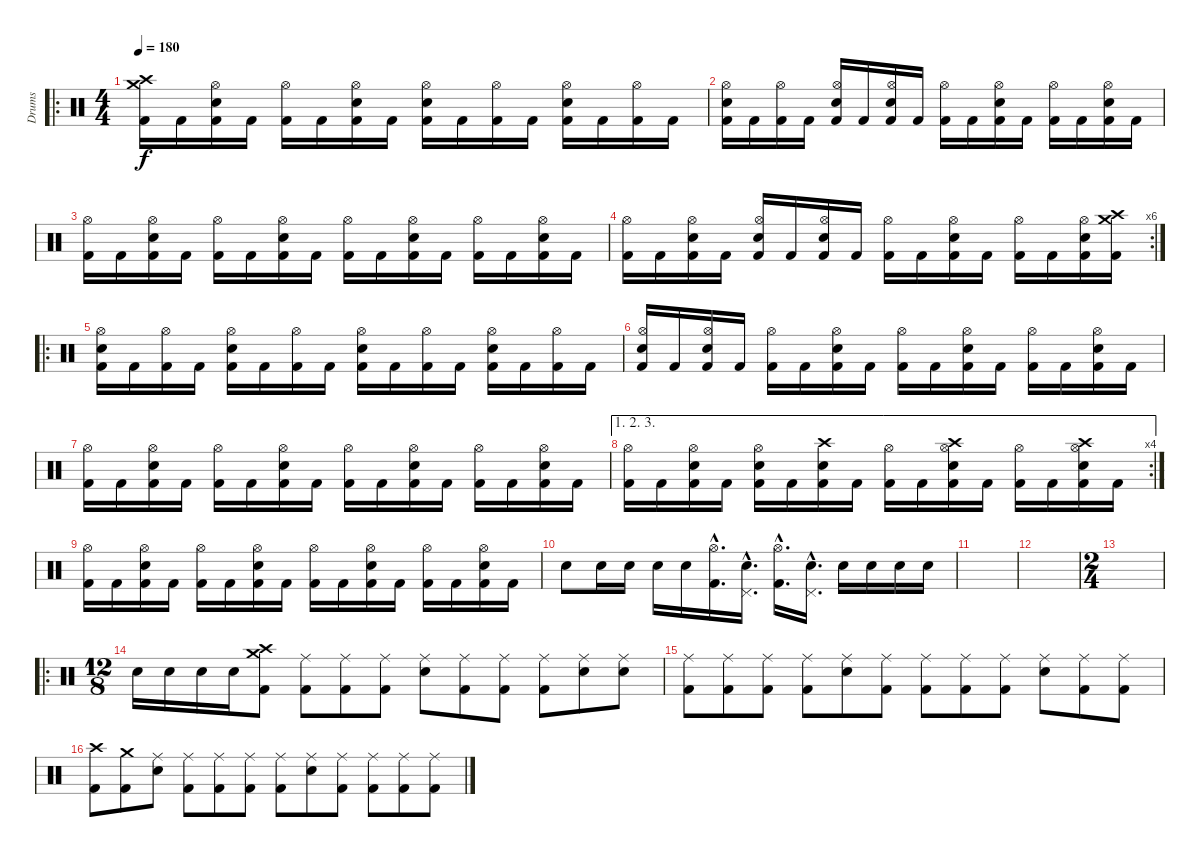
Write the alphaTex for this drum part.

\track ("Drums" "Drums") {instrument percussion}
\staff {score}
\articulation defaults
\ro
\ts (4 4)
\tempo 180
\clef neutral
\ks c
("Crash high (hit)" "Crash medium (hit)" "Kick (hit) 2").16{dy f} "Kick (hit) 2".16 ("Hi-Hat (open)" "Electric Snare (hit)" "Kick (hit) 2").16 "Kick (hit) 2".16 ("Hi-Hat (open)" "Kick (hit) 2").16 "Kick (hit) 2".16 ("Hi-Hat (open)" "Electric Snare (hit)" "Kick (hit) 2").16 "Kick (hit) 2".16 ("Hi-Hat (open)" "Electric Snare (hit)" "Kick (hit) 2").16 "Kick (hit) 2".16 ("Hi-Hat (open)" "Kick (hit) 2").16 "Kick (hit) 2".16 ("Hi-Hat (open)" "Electric Snare (hit)" "Kick (hit) 2").16 "Kick (hit) 2".16 ("Hi-Hat (open)" "Kick (hit) 2").16 "Kick (hit) 2".16 |
("Hi-Hat (open)" "Electric Snare (hit)" "Kick (hit) 2").16 "Kick (hit) 2".16 ("Hi-Hat (open)" "Kick (hit) 2").16 "Kick (hit) 2".16 ("Hi-Hat (open)" "Electric Snare (hit)" "Kick (hit) 2").16 "Kick (hit) 2".16 ("Hi-Hat (open)" "Electric Snare (hit)" "Kick (hit) 2").16 "Kick (hit) 2".16 ("Hi-Hat (open)" "Kick (hit) 2").16 "Kick (hit) 2".16 ("Hi-Hat (open)" "Electric Snare (hit)" "Kick (hit) 2").16 "Kick (hit) 2".16 ("Hi-Hat (open)" "Kick (hit) 2").16 "Kick (hit) 2".16 ("Hi-Hat (open)" "Electric Snare (hit)" "Kick (hit) 2").16 "Kick (hit) 2".16 |
("Hi-Hat (open)" "Kick (hit) 2").16 "Kick (hit) 2".16 ("Hi-Hat (open)" "Electric Snare (hit)" "Kick (hit) 2").16 "Kick (hit) 2".16 ("Hi-Hat (open)" "Kick (hit) 2").16 "Kick (hit) 2".16 ("Hi-Hat (open)" "Electric Snare (hit)" "Kick (hit) 2").16 "Kick (hit) 2".16 ("Hi-Hat (open)" "Kick (hit) 2").16 "Kick (hit) 2".16 ("Hi-Hat (open)" "Electric Snare (hit)" "Kick (hit) 2").16 "Kick (hit) 2".16 ("Hi-Hat (open)" "Kick (hit) 2").16 "Kick (hit) 2".16 ("Hi-Hat (open)" "Electric Snare (hit)" "Kick (hit) 2").16 "Kick (hit) 2".16 |
\rc 6
("Hi-Hat (open)" "Kick (hit) 2").16 "Kick (hit) 2".16 ("Hi-Hat (open)" "Electric Snare (hit)" "Kick (hit) 2").16 "Kick (hit) 2".16 ("Hi-Hat (open)" "Electric Snare (hit)" "Kick (hit) 2").16 "Kick (hit) 2".16 ("Hi-Hat (open)" "Electric Snare (hit)" "Kick (hit) 2").16 "Kick (hit) 2".16 ("Hi-Hat (open)" "Kick (hit) 2").16 "Kick (hit) 2".16 ("Hi-Hat (open)" "Electric Snare (hit)" "Kick (hit) 2").16 "Kick (hit) 2".16 ("Hi-Hat (open)" "Kick (hit) 2").16 "Kick (hit) 2".16 ("Hi-Hat (open)" "Electric Snare (hit)" "Kick (hit) 2").16 ("Crash high (hit)" "Crash medium (hit)" "Kick (hit) 2").16 |
\ro
("Hi-Hat (open)" "Electric Snare (hit)" "Kick (hit) 2").16 "Kick (hit) 2".16 ("Hi-Hat (open)" "Kick (hit) 2").16 "Kick (hit) 2".16 ("Hi-Hat (open)" "Electric Snare (hit)" "Kick (hit) 2").16 "Kick (hit) 2".16 ("Hi-Hat (open)" "Kick (hit) 2").16 "Kick (hit) 2".16 ("Hi-Hat (open)" "Electric Snare (hit)" "Kick (hit) 2").16 "Kick (hit) 2".16 ("Hi-Hat (open)" "Kick (hit) 2").16 "Kick (hit) 2".16 ("Hi-Hat (open)" "Electric Snare (hit)" "Kick (hit) 2").16 "Kick (hit) 2".16 ("Hi-Hat (open)" "Kick (hit) 2").16 "Kick (hit) 2".16 |
("Hi-Hat (open)" "Electric Snare (hit)" "Kick (hit) 2").16 "Kick (hit) 2".16 ("Hi-Hat (open)" "Electric Snare (hit)" "Kick (hit) 2").16 "Kick (hit) 2".16 ("Hi-Hat (open)" "Kick (hit) 2").16 "Kick (hit) 2".16 ("Hi-Hat (open)" "Electric Snare (hit)" "Kick (hit) 2").16 "Kick (hit) 2".16 ("Hi-Hat (open)" "Kick (hit) 2").16 "Kick (hit) 2".16 ("Hi-Hat (open)" "Electric Snare (hit)" "Kick (hit) 2").16 "Kick (hit) 2".16 ("Hi-Hat (open)" "Kick (hit) 2").16 "Kick (hit) 2".16 ("Hi-Hat (open)" "Electric Snare (hit)" "Kick (hit) 2").16 "Kick (hit) 2".16 |
("Hi-Hat (open)" "Kick (hit) 2").16 "Kick (hit) 2".16 ("Hi-Hat (open)" "Electric Snare (hit)" "Kick (hit) 2").16 "Kick (hit) 2".16 ("Hi-Hat (open)" "Kick (hit) 2").16 "Kick (hit) 2".16 ("Hi-Hat (open)" "Electric Snare (hit)" "Kick (hit) 2").16 "Kick (hit) 2".16 ("Hi-Hat (open)" "Kick (hit) 2").16 "Kick (hit) 2".16 ("Hi-Hat (open)" "Electric Snare (hit)" "Kick (hit) 2").16 "Kick (hit) 2".16 ("Hi-Hat (open)" "Kick (hit) 2").16 "Kick (hit) 2".16 ("Hi-Hat (open)" "Electric Snare (hit)" "Kick (hit) 2").16 "Kick (hit) 2".16 |
\ae (1 2 3)
\rc 4
("Hi-Hat (open)" "Kick (hit) 2").16 "Kick (hit) 2".16 ("Hi-Hat (open)" "Electric Snare (hit)" "Kick (hit) 2").16 "Kick (hit) 2".16 ("Hi-Hat (open)" "Electric Snare (hit)" "Kick (hit) 2").16 "Kick (hit) 2".16 ("Crash high (hit)" "Electric Snare (hit)" "Kick (hit) 2").16 "Kick (hit) 2".16 ("Hi-Hat (open)" "Kick (hit) 2").16 "Kick (hit) 2".16 ("Crash high (hit)" "Hi-Hat (open)" "Electric Snare (hit)" "Kick (hit) 2").16 "Kick (hit) 2".16 ("Hi-Hat (open)" "Kick (hit) 2").16 "Kick (hit) 2".16 ("Crash high (hit)" "Hi-Hat (open)" "Electric Snare (hit)" "Kick (hit) 2").16 "Kick (hit) 2".16 |
("Hi-Hat (open)" "Kick (hit) 2").16 "Kick (hit) 2".16 ("Hi-Hat (open)" "Electric Snare (hit)" "Kick (hit) 2").16 "Kick (hit) 2".16 ("Hi-Hat (open)" "Kick (hit) 2").16 "Kick (hit) 2".16 ("Hi-Hat (open)" "Electric Snare (hit)" "Kick (hit) 2").16 "Kick (hit) 2".16 ("Hi-Hat (open)" "Kick (hit) 2").16 "Kick (hit) 2".16 ("Hi-Hat (open)" "Electric Snare (hit)" "Kick (hit) 2").16 "Kick (hit) 2".16 ("Hi-Hat (open)" "Kick (hit) 2").16 "Kick (hit) 2".16 ("Hi-Hat (open)" "Electric Snare (hit)" "Kick (hit) 2").16 "Kick (hit) 2".16 |
"Electric Snare (hit)".8 "Electric Snare (hit)".16 "Electric Snare (hit)".16 "Electric Snare (hit)".16 "Electric Snare (hit)".16 ("Hi-Hat (open)"{hac} "Kick (hit) 2"{hac}).16{d} ("Pedal Hi-Hat (hit)"{hac} "Electric Snare (hit)"{hac}).16{d} ("Hi-Hat (open)"{hac} "Kick (hit) 2"{hac}).16{d} ("Pedal Hi-Hat (hit)"{hac} "Electric Snare (hit)"{hac}).16{d} "Electric Snare (hit)".16 "Electric Snare (hit)".16 "Electric Snare (hit)".16 "Electric Snare (hit)".16 |
|
|
\ts (2 4)
|
\ro
\ts (12 8)
"Electric Snare (hit)".16 "Electric Snare (hit)".16 "Electric Snare (hit)".16 "Electric Snare (hit)".16 ("Crash high (hit)" "Crash medium (hit)" "Kick (hit) 2").8 ("Ride (middle)" "Kick (hit) 2").8 ("Ride (middle)" "Kick (hit) 2").8 ("Ride (middle)" "Kick (hit) 2").8 ("Ride (middle)" "Electric Snare (hit)").8 ("Ride (middle)" "Kick (hit) 2").8 ("Ride (middle)" "Kick (hit) 2").8 ("Ride (middle)" "Kick (hit) 2").8 ("Ride (middle)" "Electric Snare (hit)").8 ("Ride (middle)" "Electric Snare (hit)").8 |
("Ride (middle)" "Kick (hit) 2").8 ("Ride (middle)" "Kick (hit) 2").8 ("Ride (middle)" "Kick (hit) 2").8 ("Ride (middle)" "Kick (hit) 2").8 ("Ride (middle)" "Electric Snare (hit)").8 ("Ride (middle)" "Kick (hit) 2").8 ("Ride (middle)" "Kick (hit) 2").8 ("Ride (middle)" "Kick (hit) 2").8 ("Ride (middle)" "Kick (hit) 2").8 ("Ride (middle)" "Electric Snare (hit)").8 ("Ride (middle)" "Kick (hit) 2").8 ("Ride (middle)" "Kick (hit) 2").8 |
("Crash high (hit)" "Kick (hit) 2").8 ("Crash medium (hit)" "Kick (hit) 2").8 ("Ride (middle)" "Electric Snare (hit)").8 ("Ride (middle)" "Kick (hit) 2").8 ("Ride (middle)" "Kick (hit) 2").8 ("Ride (middle)" "Kick (hit) 2").8 ("Ride (middle)" "Kick (hit) 2").8 ("Ride (middle)" "Electric Snare (hit)").8 ("Ride (middle)" "Kick (hit) 2").8 ("Ride (middle)" "Kick (hit) 2").8 ("Ride (middle)" "Kick (hit) 2").8 ("Ride (middle)" "Kick (hit) 2").8
